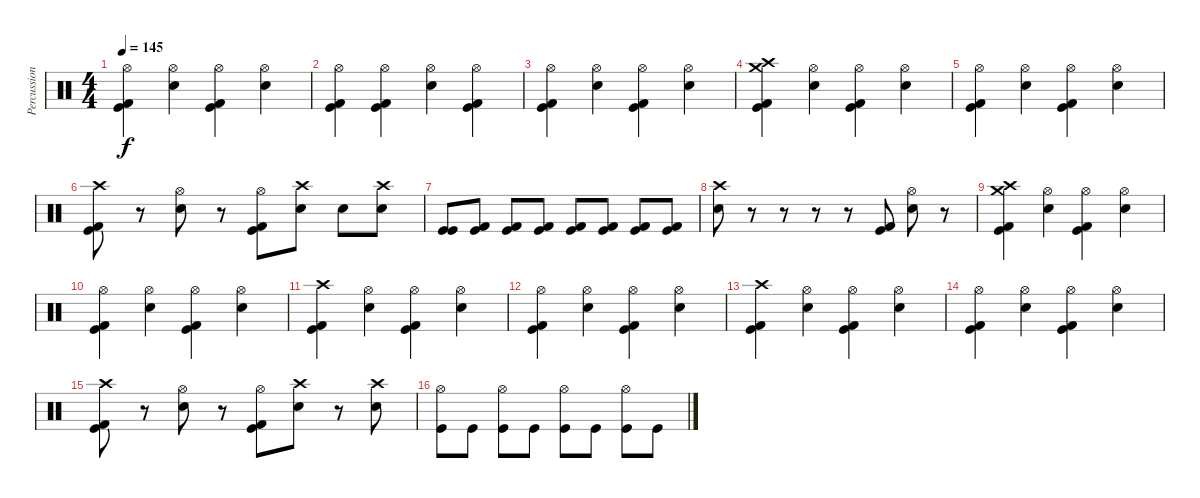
\track ("Percussion" "Percussion") {instrument percussion}
\staff {score}
\articulation defaults
\ts (4 4)
\tempo 145
\clef neutral
\ks c
("Hi-Hat (open)" "Kick (hit) 2" "Kick (hit)").4{dy f} ("Hi-Hat (open)" "Snare (hit) 2").4 ("Hi-Hat (open)" "Kick (hit) 2" "Kick (hit)").4 ("Hi-Hat (open)" "Snare (hit) 2").4 |
("Hi-Hat (open)" "Kick (hit)" "Kick (hit) 2").4 ("Hi-Hat (open)" "Kick (hit)" "Kick (hit) 2").4 ("Hi-Hat (open)" "Snare (hit) 2").4 ("Hi-Hat (open)" "Kick (hit)" "Kick (hit) 2").4 |
("Hi-Hat (open)" "Kick (hit) 2" "Kick (hit)").4 ("Hi-Hat (open)" "Snare (hit) 2").4 ("Hi-Hat (open)" "Kick (hit) 2" "Kick (hit)").4 ("Hi-Hat (open)" "Snare (hit) 2").4 |
("Crash high (hit)" "Kick (hit)" "Kick (hit) 2" "Crash medium (hit)").4 ("Hi-Hat (open)" "Snare (hit) 2").4 ("Hi-Hat (open)" "Kick (hit)" "Kick (hit) 2").4 ("Hi-Hat (open)" "Snare (hit) 2").4 |
("Hi-Hat (open)" "Kick (hit) 2" "Kick (hit)").4 ("Hi-Hat (open)" "Snare (hit) 2").4 ("Hi-Hat (open)" "Kick (hit) 2" "Kick (hit)").4 ("Hi-Hat (open)" "Snare (hit) 2").4 |
("Crash high (hit)" "Kick (hit)" "Kick (hit) 2").8 r.8 ("Hi-Hat (open)" "Snare (hit) 2").8 r.8 ("Hi-Hat (open)" "Kick (hit)" "Kick (hit) 2").8 ("Snare (hit) 2" "Crash high (hit)").8 "Snare (hit) 2".8 ("Snare (hit) 2" "Crash high (hit)").8 |
("Kick (hit)" "Kick (hit)").8 ("Kick (hit) 2" "Kick (hit)").8 ("Kick (hit) 2" "Kick (hit)").8 ("Kick (hit) 2" "Kick (hit)").8 ("Kick (hit) 2" "Kick (hit)").8 ("Kick (hit) 2" "Kick (hit)").8 ("Kick (hit) 2" "Kick (hit)").8 ("Kick (hit) 2" "Kick (hit)").8 |
("Snare (hit) 2" "Crash high (hit)").8 r.8 r.8 r.8 r.8 ("Kick (hit)" "Kick (hit) 2").8 ("Hi-Hat (open)" "Snare (hit) 2").8 r.8 |
("Crash high (hit)" "Kick (hit)" "Kick (hit) 2" "Crash medium (hit)").4 ("Hi-Hat (open)" "Snare (hit) 2").4 ("Hi-Hat (open)" "Kick (hit)" "Kick (hit) 2").4 ("Hi-Hat (open)" "Snare (hit) 2").4 |
("Hi-Hat (open)" "Kick (hit) 2" "Kick (hit)").4 ("Hi-Hat (open)" "Snare (hit) 2").4 ("Hi-Hat (open)" "Kick (hit) 2" "Kick (hit)").4 ("Hi-Hat (open)" "Snare (hit) 2").4 |
("Crash high (hit)" "Kick (hit)" "Kick (hit) 2").4 ("Hi-Hat (open)" "Snare (hit) 2").4 ("Hi-Hat (open)" "Kick (hit)" "Kick (hit) 2").4 ("Hi-Hat (open)" "Snare (hit) 2").4 |
("Hi-Hat (open)" "Kick (hit) 2" "Kick (hit)").4 ("Hi-Hat (open)" "Snare (hit) 2").4 ("Hi-Hat (open)" "Kick (hit) 2" "Kick (hit)").4 ("Hi-Hat (open)" "Snare (hit) 2").4 |
("Crash high (hit)" "Kick (hit)" "Kick (hit) 2").4 ("Hi-Hat (open)" "Snare (hit) 2").4 ("Hi-Hat (open)" "Kick (hit)" "Kick (hit) 2").4 ("Hi-Hat (open)" "Snare (hit) 2").4 |
("Hi-Hat (open)" "Kick (hit) 2" "Kick (hit)").4 ("Hi-Hat (open)" "Snare (hit) 2").4 ("Hi-Hat (open)" "Kick (hit) 2" "Kick (hit)").4 ("Hi-Hat (open)" "Snare (hit) 2").4 |
("Crash high (hit)" "Kick (hit)" "Kick (hit) 2").8 r.8 ("Hi-Hat (open)" "Snare (hit) 2").8 r.8 ("Hi-Hat (open)" "Kick (hit)" "Kick (hit) 2").8 ("Crash high (hit)" "Snare (hit) 2").8 r.8 ("Crash high (hit)" "Snare (hit) 2").8 |
("Hi-Hat (open)" "Kick (hit)").8 "Kick (hit)".8 ("Hi-Hat (open)" "Kick (hit)").8 "Kick (hit)".8 ("Hi-Hat (open)" "Kick (hit)").8 "Kick (hit)".8 ("Hi-Hat (open)" "Kick (hit)").8 "Kick (hit)".8
